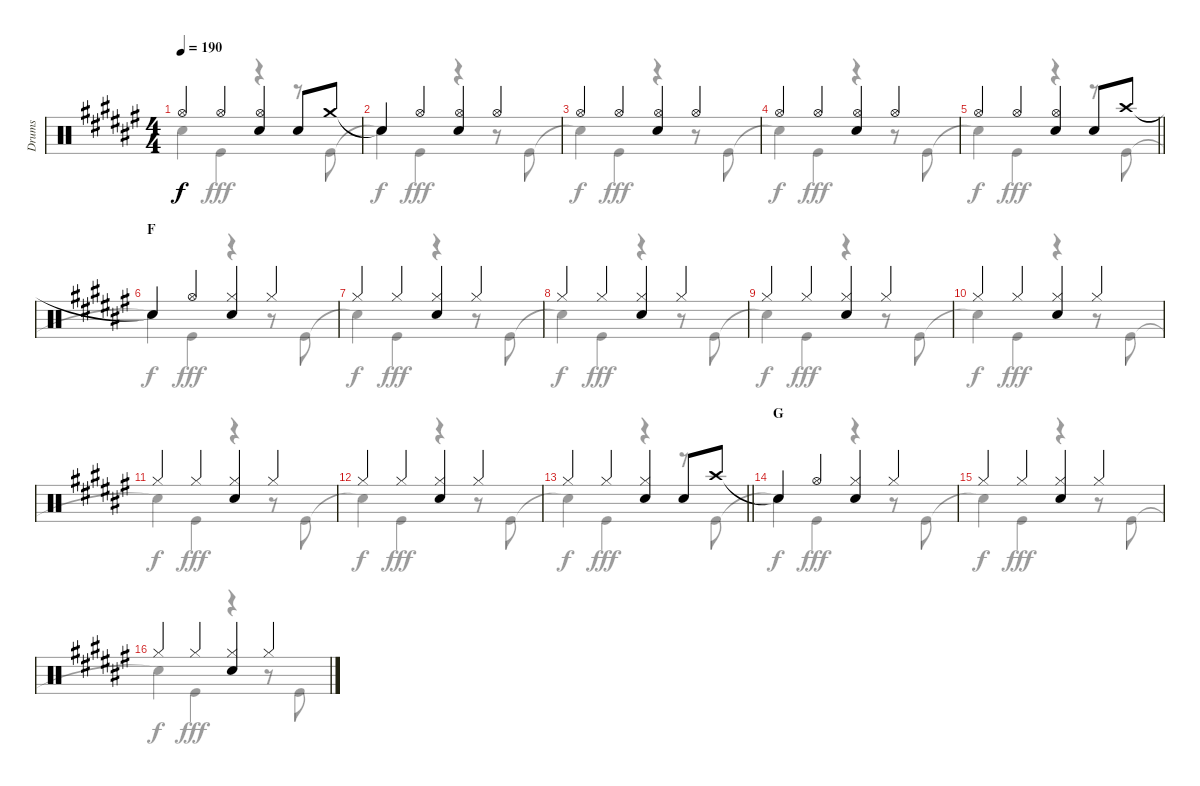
\track ("Drums" "Drums") {instrument percussion}
\staff {score}
\articulation defaults
\voice
\ts (4 4)
\tempo 190
\clef neutral
\ks f# "Hi-Hat (open)".4{dy f} "Hi-Hat (open)".4
("Hi-Hat (open)" "Snare (hit) 2").4 "Snare (hit) 2".8 "Crash medium (hit)".8 |
"Snare (hit)"{t}.4 "Hi-Hat (open)".4 ("Hi-Hat (open)" "Snare (hit) 2").4 "Hi-Hat (open)".4 |
"Hi-Hat (open)".4 "Hi-Hat (open)".4 ("Hi-Hat (open)" "Snare (hit) 2").4 "Hi-Hat (open)".4 |
"Hi-Hat (open)".4 "Hi-Hat (open)".4 ("Hi-Hat (open)" "Snare (hit) 2").4 "Hi-Hat (open)".4 |
\barLineRight lightlight "Hi-Hat (open)".4 "Hi-Hat (open)".4
("Hi-Hat (open)" "Snare (hit) 2").4 "Snare (hit) 2".8 "Crash high (hit)".8 |
\section ("" "F")
"Snare (hit)"{t}.4 "Hi-Hat (open)".4 ("Hi-Hat (closed)" "Snare (hit) 2").4 "Hi-Hat (closed)".4 |
"Hi-Hat (closed)".4 "Hi-Hat (closed)".4 ("Hi-Hat (closed)" "Snare (hit) 2").4 "Hi-Hat (closed)".4 |
"Hi-Hat (closed)".4 "Hi-Hat (closed)".4 ("Hi-Hat (closed)" "Snare (hit) 2").4 "Hi-Hat (closed)".4 |
"Hi-Hat (closed)".4 "Hi-Hat (closed)".4 ("Hi-Hat (closed)" "Snare (hit) 2").4 "Hi-Hat (closed)".4 |
"Hi-Hat (closed)".4 "Hi-Hat (closed)".4 ("Hi-Hat (closed)" "Snare (hit) 2").4 "Hi-Hat (closed)".4 |
"Hi-Hat (closed)".4 "Hi-Hat (closed)".4 ("Hi-Hat (closed)" "Snare (hit) 2").4 "Hi-Hat (closed)".4 |
"Hi-Hat (closed)".4 "Hi-Hat (closed)".4 ("Hi-Hat (closed)" "Snare (hit) 2").4 "Hi-Hat (closed)".4 |
\barLineRight lightlight "Hi-Hat (closed)".4 "Hi-Hat (closed)".4
("Hi-Hat (closed)" "Snare (hit) 2").4 "Snare (hit) 2".8 "Crash high (hit)".8 |
\section ("" "G")
"Snare (hit)"{t}.4 "Hi-Hat (open)".4 ("Hi-Hat (closed)" "Snare (hit) 2").4 "Hi-Hat (closed)".4 |
"Hi-Hat (closed)".4 "Hi-Hat (closed)".4 ("Hi-Hat (closed)" "Snare (hit) 2").4 "Hi-Hat (closed)".4 |
"Hi-Hat (closed)".4 "Hi-Hat (closed)".4 ("Hi-Hat (closed)" "Snare (hit) 2").4 "Hi-Hat (closed)".4
\voice
\clef neutral
\ottava regular
\simile none
\ks f# "Snare (hit)"{t}.4{dy f} "Kick (hit)".4{dy fff}
r.4 r.8 "Kick (hit)".8 |
"Snare (hit)"{t}.4{dy f} "Kick (hit)".4{dy fff} r.4 r.8 "Kick (hit)".8 |
"Snare (hit)"{t}.4{dy f} "Kick (hit)".4{dy fff} r.4 r.8 "Kick (hit)".8 |
"Snare (hit)"{t}.4{dy f} "Kick (hit)".4{dy fff} r.4 r.8 "Kick (hit)".8 |
\barLineRight lightlight "Snare (hit)"{t}.4{dy f} "Kick (hit)".4{dy fff}
r.4 r.8 "Kick (hit)".8 |
"Snare (hit)"{t}.4{dy f} "Kick (hit)".4{dy fff} r.4 r.8 "Kick (hit)".8 |
"Snare (hit)"{t}.4{dy f} "Kick (hit)".4{dy fff} r.4 r.8 "Kick (hit)".8 |
"Snare (hit)"{t}.4{dy f} "Kick (hit)".4{dy fff} r.4 r.8 "Kick (hit)".8 |
"Snare (hit)"{t}.4{dy f} "Kick (hit)".4{dy fff} r.4 r.8 "Kick (hit)".8 |
"Snare (hit)"{t}.4{dy f} "Kick (hit)".4{dy fff} r.4 r.8 "Kick (hit)".8 |
"Snare (hit)"{t}.4{dy f} "Kick (hit)".4{dy fff} r.4 r.8 "Kick (hit)".8 |
"Snare (hit)"{t}.4{dy f} "Kick (hit)".4{dy fff} r.4 r.8 "Kick (hit)".8 |
\barLineRight lightlight "Snare (hit)"{t}.4{dy f} "Kick (hit)".4{dy fff}
r.4 r.8 "Kick (hit)".8 |
"Snare (hit)"{t}.4{dy f} "Kick (hit)".4{dy fff} r.4 r.8 "Kick (hit)".8 |
"Snare (hit)"{t}.4{dy f} "Kick (hit)".4{dy fff} r.4 r.8 "Kick (hit)".8 |
"Snare (hit)"{t}.4{dy f} "Kick (hit)".4{dy fff} r.4 r.8 "Kick (hit)".8
